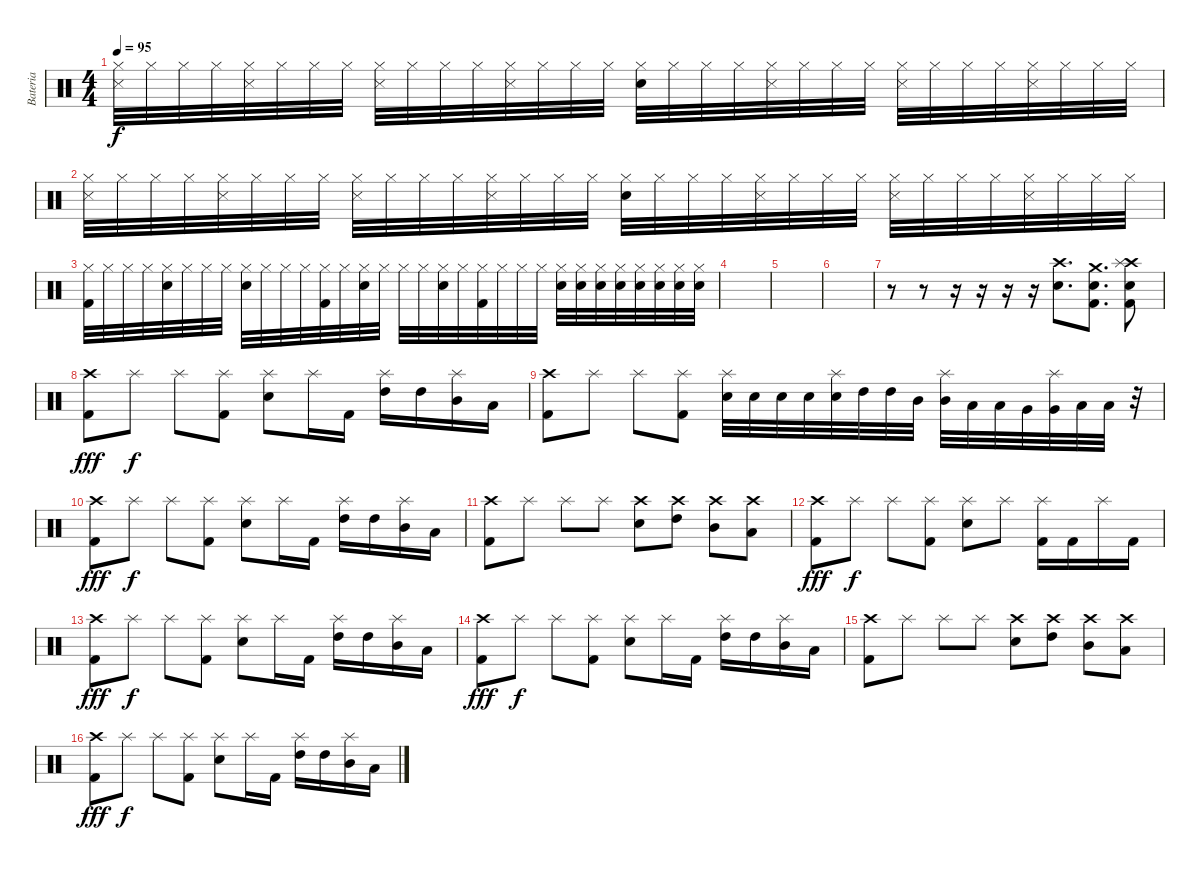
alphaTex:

\track ("Bateria" "Bateria") {instrument percussion}
\staff {score}
\articulation defaults
\ts (4 4)
\tempo 95
\clef neutral
\ks c
("Hi-Hat (closed)" "Snare (side stick) 3").32{dy f} "Hi-Hat (closed)".32 "Hi-Hat (closed)".32 "Hi-Hat (closed)".32 ("Hi-Hat (closed)" "Snare (side stick) 3").32 "Hi-Hat (closed)".32 "Hi-Hat (closed)".32 "Hi-Hat (closed)".32 ("Hi-Hat (closed)" "Snare (side stick) 3").32 "Hi-Hat (closed)".32 "Hi-Hat (closed)".32 "Hi-Hat (closed)".32 ("Hi-Hat (closed)" "Snare (side stick) 3").32 "Hi-Hat (closed)".32 "Hi-Hat (closed)".32 "Hi-Hat (closed)".32 ("Hi-Hat (closed)" "Electric Snare (hit)").32 "Hi-Hat (closed)".32 "Hi-Hat (closed)".32 "Hi-Hat (closed)".32 ("Hi-Hat (closed)" "Snare (side stick) 3").32 "Hi-Hat (closed)".32 "Hi-Hat (closed)".32 "Hi-Hat (closed)".32 ("Hi-Hat (closed)" "Snare (side stick) 3").32 "Hi-Hat (closed)".32 "Hi-Hat (closed)".32 "Hi-Hat (closed)".32 ("Hi-Hat (closed)" "Snare (side stick) 3").32 "Hi-Hat (closed)".32 "Hi-Hat (closed)".32 "Hi-Hat (closed)".32 |
("Hi-Hat (closed)" "Snare (side stick) 3").32 "Hi-Hat (closed)".32 "Hi-Hat (closed)".32 "Hi-Hat (closed)".32 ("Hi-Hat (closed)" "Snare (side stick) 3").32 "Hi-Hat (closed)".32 "Hi-Hat (closed)".32 "Hi-Hat (closed)".32 ("Hi-Hat (closed)" "Snare (side stick) 3").32 "Hi-Hat (closed)".32 "Hi-Hat (closed)".32 "Hi-Hat (closed)".32 ("Hi-Hat (closed)" "Snare (side stick) 3").32 "Hi-Hat (closed)".32 "Hi-Hat (closed)".32 "Hi-Hat (closed)".32 ("Hi-Hat (closed)" "Electric Snare (hit)").32 "Hi-Hat (closed)".32 "Hi-Hat (closed)".32 "Hi-Hat (closed)".32 ("Hi-Hat (closed)" "Snare (side stick) 3").32 "Hi-Hat (closed)".32 "Hi-Hat (closed)".32 "Hi-Hat (closed)".32 ("Hi-Hat (closed)" "Snare (side stick) 3").32 "Hi-Hat (closed)".32 "Hi-Hat (closed)".32 "Hi-Hat (closed)".32 ("Hi-Hat (closed)" "Snare (side stick) 3").32 "Hi-Hat (closed)".32 "Hi-Hat (closed)".32 "Hi-Hat (closed)".32 |
("Hi-Hat (closed)" "Kick (hit) 2").32 "Hi-Hat (closed)".32 "Hi-Hat (closed)".32 "Hi-Hat (closed)".32 ("Hi-Hat (closed)" "Electric Snare (hit)").32 "Hi-Hat (closed)".32 "Hi-Hat (closed)".32 "Hi-Hat (closed)".32 ("Hi-Hat (closed)" "Electric Snare (hit)").32 "Hi-Hat (closed)".32 "Hi-Hat (closed)".32 "Hi-Hat (closed)".32 ("Hi-Hat (closed)" "Kick (hit) 2").32 "Hi-Hat (closed)".32 ("Hi-Hat (closed)" "Electric Snare (hit)").32 "Hi-Hat (closed)".32 "Hi-Hat (closed)".32 "Hi-Hat (closed)".32 ("Hi-Hat (closed)" "Electric Snare (hit)").32 "Hi-Hat (closed)".32 ("Hi-Hat (closed)" "Kick (hit) 2").32 "Hi-Hat (closed)".32 "Hi-Hat (closed)".32 "Hi-Hat (closed)".32 ("Hi-Hat (closed)" "Electric Snare (hit)").32 ("Hi-Hat (closed)" "Electric Snare (hit)").32 ("Hi-Hat (closed)" "Electric Snare (hit)").32 ("Hi-Hat (closed)" "Electric Snare (hit)").32 ("Hi-Hat (closed)" "Electric Snare (hit)").32 ("Hi-Hat (closed)" "Electric Snare (hit)").32 ("Hi-Hat (closed)" "Electric Snare (hit)").32 ("Hi-Hat (closed)" "Electric Snare (hit)").32 |
|
|
|
r.8 r.8 r.16 r.16 r.16 r.16 ("Crash high (hit)" "Electric Snare (hit)").8{d} ("Crash medium (hit)" "Electric Snare (hit)" "Kick (hit) 2").8{d} ("Crash high (hit)" "Splash (hit)" "Electric Snare (hit)" "Kick (hit) 2").8 |
("Crash high (hit)" "Kick (hit) 2").8{dy fff} "Splash (hit)".8{dy f} "Splash (hit)".8 ("Splash (hit)" "Kick (hit) 2").8 ("Splash (hit)" "Electric Snare (hit)").8 "Splash (hit)".16 "Kick (hit) 2".16 ("Splash (hit)" "High Tom (hit)").16 "High Tom (hit)".16 ("Splash (hit)" "Mid Tom (hit)").16 "Low Tom (hit)".16 |
("Crash high (hit)" "Kick (hit) 2").8 "Splash (hit)".8 "Splash (hit)".8 ("Splash (hit)" "Kick (hit) 2").8 ("Splash (hit)" "Electric Snare (hit)").32 "Electric Snare (hit)".32 "Electric Snare (hit)".32 "Electric Snare (hit)".32 ("Splash (hit)" "Electric Snare (hit)").32 "High Tom (hit)".32 "High Tom (hit)".32 "Mid Tom (hit)".32 ("Splash (hit)" "Mid Tom (hit)").32 "Low Tom (hit)".32 "Low Tom (hit)".32 "Very Low Tom (hit)".32 ("Splash (hit)" "Very Low Tom (hit)").32 "Low Floor Tom (hit)".32 "Low Floor Tom (hit)".32 r.32 |
("Crash high (hit)" "Kick (hit) 2").8{dy fff} "Splash (hit)".8{dy f} "Splash (hit)".8 ("Splash (hit)" "Kick (hit) 2").8 ("Splash (hit)" "Electric Snare (hit)").8 "Splash (hit)".16 "Kick (hit) 2".16 ("Splash (hit)" "High Tom (hit)").16 "High Tom (hit)".16 ("Splash (hit)" "Mid Tom (hit)").16 "Low Tom (hit)".16 |
("Crash high (hit)" "Kick (hit) 2").8 "Splash (hit)".8 "Splash (hit)".8 "Splash (hit)".8 ("Crash high (hit)" "Electric Snare (hit)").8 ("Crash high (hit)" "High Tom (hit)").8 ("Crash high (hit)" "Mid Tom (hit)").8 ("Crash high (hit)" "Low Tom (hit)").8 |
("Crash high (hit)" "Kick (hit) 2").8{dy fff} "Splash (hit)".8{dy f} "Splash (hit)".8 ("Splash (hit)" "Kick (hit) 2").8 ("Splash (hit)" "Electric Snare (hit)").8 "Splash (hit)".8 ("Splash (hit)" "Kick (hit) 2").16 "Kick (hit) 2".16 "Splash (hit)".16 "Kick (hit) 2".16 |
("Crash high (hit)" "Kick (hit) 2").8{dy fff} "Splash (hit)".8{dy f} "Splash (hit)".8 ("Splash (hit)" "Kick (hit) 2").8 ("Splash (hit)" "Electric Snare (hit)").8 "Splash (hit)".16 "Kick (hit) 2".16 ("Splash (hit)" "High Tom (hit)").16 "High Tom (hit)".16 ("Splash (hit)" "Mid Tom (hit)").16 "Low Tom (hit)".16 |
("Crash high (hit)" "Kick (hit) 2").8{dy fff} "Splash (hit)".8{dy f} "Splash (hit)".8 ("Splash (hit)" "Kick (hit) 2").8 ("Splash (hit)" "Electric Snare (hit)").8 "Splash (hit)".16 "Kick (hit) 2".16 ("Splash (hit)" "High Tom (hit)").16 "High Tom (hit)".16 ("Splash (hit)" "Mid Tom (hit)").16 "Low Tom (hit)".16 |
("Crash high (hit)" "Kick (hit) 2").8 "Splash (hit)".8 "Splash (hit)".8 "Splash (hit)".8 ("Crash high (hit)" "Electric Snare (hit)").8 ("Crash high (hit)" "High Tom (hit)").8 ("Crash high (hit)" "Mid Tom (hit)").8 ("Crash high (hit)" "Low Tom (hit)").8 |
("Crash high (hit)" "Kick (hit) 2").8{dy fff} "Splash (hit)".8{dy f} "Splash (hit)".8 ("Splash (hit)" "Kick (hit) 2").8 ("Splash (hit)" "Electric Snare (hit)").8 "Splash (hit)".16 "Kick (hit) 2".16 ("Splash (hit)" "High Tom (hit)").16 "High Tom (hit)".16 ("Splash (hit)" "Mid Tom (hit)").16 "Low Tom (hit)".16
